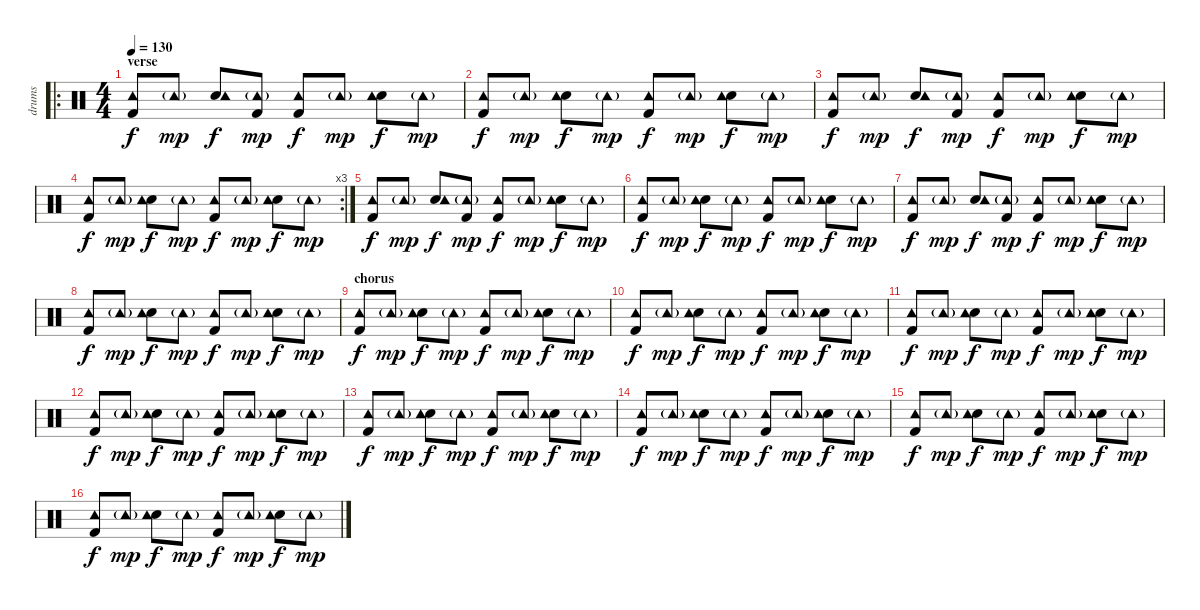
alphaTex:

\track ("drums" "drums") {instrument percussion}
\staff {score}
\articulation defaults
\ro
\ts (4 4)
\section ("" "verse ")
\tempo 130
\clef neutral
\ks c
("Kick (hit) 2" "Tambourine (hit)").8{dy f} "Tambourine (hit)"{g}.8{dy mp} ("Electric Snare (hit)" "Tambourine (hit)").8{dy f} ("Kick (hit) 2" "Tambourine (hit)"{g}).8{dy mp} ("Kick (hit) 2" "Tambourine (hit)").8{dy f} "Tambourine (hit)"{g}.8{dy mp} ("Electric Snare (hit)" "Tambourine (hit)").8{dy f} "Tambourine (hit)"{g}.8{dy mp} |
("Kick (hit) 2" "Tambourine (hit)").8{dy f} "Tambourine (hit)"{g}.8{dy mp} ("Electric Snare (hit)" "Tambourine (hit)").8{dy f} "Tambourine (hit)"{g}.8{dy mp} ("Kick (hit) 2" "Tambourine (hit)").8{dy f} "Tambourine (hit)"{g}.8{dy mp} ("Electric Snare (hit)" "Tambourine (hit)").8{dy f} "Tambourine (hit)"{g}.8{dy mp} |
("Kick (hit) 2" "Tambourine (hit)").8{dy f} "Tambourine (hit)"{g}.8{dy mp} ("Electric Snare (hit)" "Tambourine (hit)").8{dy f} ("Kick (hit) 2" "Tambourine (hit)"{g}).8{dy mp} ("Kick (hit) 2" "Tambourine (hit)").8{dy f} "Tambourine (hit)"{g}.8{dy mp} ("Electric Snare (hit)" "Tambourine (hit)").8{dy f} "Tambourine (hit)"{g}.8{dy mp} |
\rc 3
("Kick (hit) 2" "Tambourine (hit)").8{dy f} "Tambourine (hit)"{g}.8{dy mp} ("Electric Snare (hit)" "Tambourine (hit)").8{dy f} "Tambourine (hit)"{g}.8{dy mp} ("Kick (hit) 2" "Tambourine (hit)").8{dy f} "Tambourine (hit)"{g}.8{dy mp} ("Electric Snare (hit)" "Tambourine (hit)").8{dy f} "Tambourine (hit)"{g}.8{dy mp} |
("Kick (hit) 2" "Tambourine (hit)").8{dy f} "Tambourine (hit)"{g}.8{dy mp} ("Electric Snare (hit)" "Tambourine (hit)").8{dy f} ("Kick (hit) 2" "Tambourine (hit)"{g}).8{dy mp} ("Kick (hit) 2" "Tambourine (hit)").8{dy f} "Tambourine (hit)"{g}.8{dy mp} ("Electric Snare (hit)" "Tambourine (hit)").8{dy f} "Tambourine (hit)"{g}.8{dy mp} |
("Kick (hit) 2" "Tambourine (hit)").8{dy f} "Tambourine (hit)"{g}.8{dy mp} ("Electric Snare (hit)" "Tambourine (hit)").8{dy f} "Tambourine (hit)"{g}.8{dy mp} ("Kick (hit) 2" "Tambourine (hit)").8{dy f} "Tambourine (hit)"{g}.8{dy mp} ("Electric Snare (hit)" "Tambourine (hit)").8{dy f} "Tambourine (hit)"{g}.8{dy mp} |
("Kick (hit) 2" "Tambourine (hit)").8{dy f} "Tambourine (hit)"{g}.8{dy mp} ("Electric Snare (hit)" "Tambourine (hit)").8{dy f} ("Kick (hit) 2" "Tambourine (hit)"{g}).8{dy mp} ("Kick (hit) 2" "Tambourine (hit)").8{dy f} "Tambourine (hit)"{g}.8{dy mp} ("Electric Snare (hit)" "Tambourine (hit)").8{dy f} "Tambourine (hit)"{g}.8{dy mp} |
("Kick (hit) 2" "Tambourine (hit)").8{dy f} "Tambourine (hit)"{g}.8{dy mp} ("Electric Snare (hit)" "Tambourine (hit)").8{dy f} "Tambourine (hit)"{g}.8{dy mp} ("Kick (hit) 2" "Tambourine (hit)").8{dy f} "Tambourine (hit)"{g}.8{dy mp} ("Electric Snare (hit)" "Tambourine (hit)").8{dy f} "Tambourine (hit)"{g}.8{dy mp} |
\section ("" "chorus")
("Kick (hit) 2" "Tambourine (hit)").8{dy f} "Tambourine (hit)"{g}.8{dy mp} ("Electric Snare (hit)" "Tambourine (hit)").8{dy f} "Tambourine (hit)"{g}.8{dy mp} ("Kick (hit) 2" "Tambourine (hit)").8{dy f} "Tambourine (hit)"{g}.8{dy mp} ("Electric Snare (hit)" "Tambourine (hit)").8{dy f} "Tambourine (hit)"{g}.8{dy mp} |
("Kick (hit) 2" "Tambourine (hit)").8{dy f} "Tambourine (hit)"{g}.8{dy mp} ("Electric Snare (hit)" "Tambourine (hit)").8{dy f} "Tambourine (hit)"{g}.8{dy mp} ("Kick (hit) 2" "Tambourine (hit)").8{dy f} "Tambourine (hit)"{g}.8{dy mp} ("Electric Snare (hit)" "Tambourine (hit)").8{dy f} "Tambourine (hit)"{g}.8{dy mp} |
("Kick (hit) 2" "Tambourine (hit)").8{dy f} "Tambourine (hit)"{g}.8{dy mp} ("Electric Snare (hit)" "Tambourine (hit)").8{dy f} "Tambourine (hit)"{g}.8{dy mp} ("Kick (hit) 2" "Tambourine (hit)").8{dy f} "Tambourine (hit)"{g}.8{dy mp} ("Electric Snare (hit)" "Tambourine (hit)").8{dy f} "Tambourine (hit)"{g}.8{dy mp} |
("Kick (hit) 2" "Tambourine (hit)").8{dy f} "Tambourine (hit)"{g}.8{dy mp} ("Electric Snare (hit)" "Tambourine (hit)").8{dy f} "Tambourine (hit)"{g}.8{dy mp} ("Kick (hit) 2" "Tambourine (hit)").8{dy f} "Tambourine (hit)"{g}.8{dy mp} ("Electric Snare (hit)" "Tambourine (hit)").8{dy f} "Tambourine (hit)"{g}.8{dy mp} |
("Kick (hit) 2" "Tambourine (hit)").8{dy f} "Tambourine (hit)"{g}.8{dy mp} ("Electric Snare (hit)" "Tambourine (hit)").8{dy f} "Tambourine (hit)"{g}.8{dy mp} ("Kick (hit) 2" "Tambourine (hit)").8{dy f} "Tambourine (hit)"{g}.8{dy mp} ("Electric Snare (hit)" "Tambourine (hit)").8{dy f} "Tambourine (hit)"{g}.8{dy mp} |
("Kick (hit) 2" "Tambourine (hit)").8{dy f} "Tambourine (hit)"{g}.8{dy mp} ("Electric Snare (hit)" "Tambourine (hit)").8{dy f} "Tambourine (hit)"{g}.8{dy mp} ("Kick (hit) 2" "Tambourine (hit)").8{dy f} "Tambourine (hit)"{g}.8{dy mp} ("Electric Snare (hit)" "Tambourine (hit)").8{dy f} "Tambourine (hit)"{g}.8{dy mp} |
("Kick (hit) 2" "Tambourine (hit)").8{dy f} "Tambourine (hit)"{g}.8{dy mp} ("Electric Snare (hit)" "Tambourine (hit)").8{dy f} "Tambourine (hit)"{g}.8{dy mp} ("Kick (hit) 2" "Tambourine (hit)").8{dy f} "Tambourine (hit)"{g}.8{dy mp} ("Electric Snare (hit)" "Tambourine (hit)").8{dy f} "Tambourine (hit)"{g}.8{dy mp} |
("Kick (hit) 2" "Tambourine (hit)").8{dy f} "Tambourine (hit)"{g}.8{dy mp} ("Electric Snare (hit)" "Tambourine (hit)").8{dy f} "Tambourine (hit)"{g}.8{dy mp} ("Kick (hit) 2" "Tambourine (hit)").8{dy f} "Tambourine (hit)"{g}.8{dy mp} ("Electric Snare (hit)" "Tambourine (hit)").8{dy f} "Tambourine (hit)"{g}.8{dy mp}
